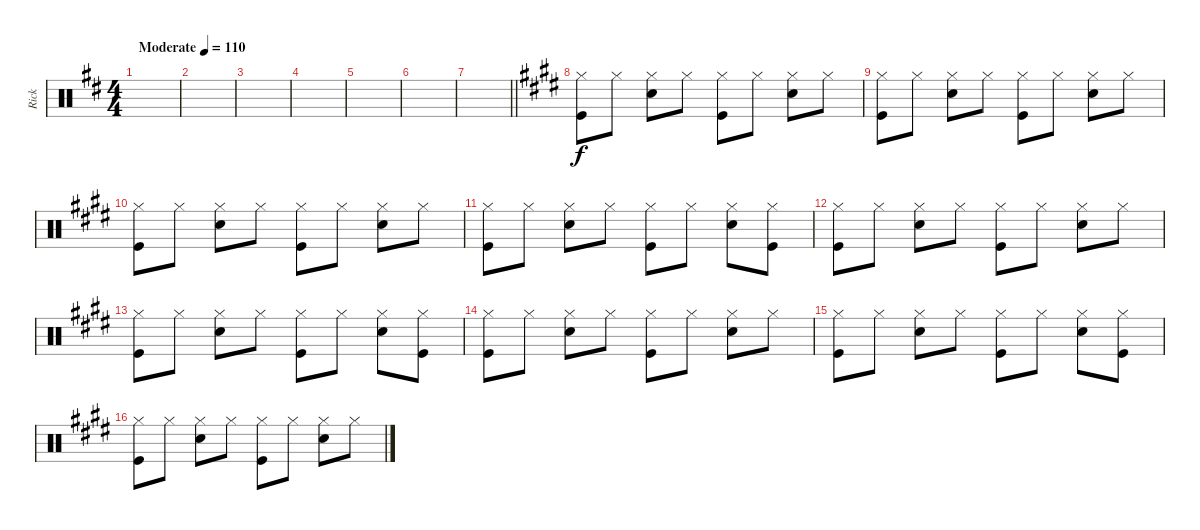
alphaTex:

\track ("Rick" "Rick") {instrument percussion}
\staff {score}
\articulation defaults
\ts (4 4)
\tempo (110 "Moderate")
\clef neutral
\ks d
|
|
|
|
|
|
\barLineRight lightlight
|
\ks c#minor
("Hi-Hat (closed)" "Kick (hit)").8 "Hi-Hat (closed)".8 ("Hi-Hat (closed)" "Snare (hit) 2").8 "Hi-Hat (closed)".8 ("Hi-Hat (closed)" "Kick (hit)").8 "Hi-Hat (closed)".8 ("Hi-Hat (closed)" "Snare (hit) 2").8 "Hi-Hat (closed)".8 |
("Hi-Hat (closed)" "Kick (hit)").8 "Hi-Hat (closed)".8 ("Hi-Hat (closed)" "Snare (hit) 2").8 "Hi-Hat (closed)".8 ("Hi-Hat (closed)" "Kick (hit)").8 "Hi-Hat (closed)".8 ("Hi-Hat (closed)" "Snare (hit) 2").8 "Hi-Hat (closed)".8 |
("Hi-Hat (closed)" "Kick (hit)").8 "Hi-Hat (closed)".8 ("Hi-Hat (closed)" "Snare (hit) 2").8 "Hi-Hat (closed)".8 ("Hi-Hat (closed)" "Kick (hit)").8 "Hi-Hat (closed)".8 ("Hi-Hat (closed)" "Snare (hit) 2").8 "Hi-Hat (closed)".8 |
("Hi-Hat (closed)" "Kick (hit)").8 "Hi-Hat (closed)".8 ("Hi-Hat (closed)" "Snare (hit) 2").8 "Hi-Hat (closed)".8 ("Hi-Hat (closed)" "Kick (hit)").8 "Hi-Hat (closed)".8 ("Hi-Hat (closed)" "Snare (hit) 2").8 ("Hi-Hat (closed)" "Kick (hit)").8 |
("Hi-Hat (closed)" "Kick (hit)").8 "Hi-Hat (closed)".8 ("Hi-Hat (closed)" "Snare (hit) 2").8 "Hi-Hat (closed)".8 ("Hi-Hat (closed)" "Kick (hit)").8 "Hi-Hat (closed)".8 ("Hi-Hat (closed)" "Snare (hit) 2").8 "Hi-Hat (closed)".8 |
("Hi-Hat (closed)" "Kick (hit)").8 "Hi-Hat (closed)".8 ("Hi-Hat (closed)" "Snare (hit) 2").8 "Hi-Hat (closed)".8 ("Hi-Hat (closed)" "Kick (hit)").8 "Hi-Hat (closed)".8 ("Hi-Hat (closed)" "Snare (hit) 2").8 ("Hi-Hat (closed)" "Kick (hit)").8 |
("Hi-Hat (closed)" "Kick (hit)").8 "Hi-Hat (closed)".8 ("Hi-Hat (closed)" "Snare (hit) 2").8 "Hi-Hat (closed)".8 ("Hi-Hat (closed)" "Kick (hit)").8 "Hi-Hat (closed)".8 ("Hi-Hat (closed)" "Snare (hit) 2").8 "Hi-Hat (closed)".8 |
("Hi-Hat (closed)" "Kick (hit)").8 "Hi-Hat (closed)".8 ("Hi-Hat (closed)" "Snare (hit) 2").8 "Hi-Hat (closed)".8 ("Hi-Hat (closed)" "Kick (hit)").8 "Hi-Hat (closed)".8 ("Hi-Hat (closed)" "Snare (hit) 2").8 ("Hi-Hat (closed)" "Kick (hit)").8 |
("Hi-Hat (closed)" "Kick (hit)").8 "Hi-Hat (closed)".8 ("Hi-Hat (closed)" "Snare (hit) 2").8 "Hi-Hat (closed)".8 ("Hi-Hat (closed)" "Kick (hit)").8 "Hi-Hat (closed)".8 ("Hi-Hat (closed)" "Snare (hit) 2").8 "Hi-Hat (closed)".8
